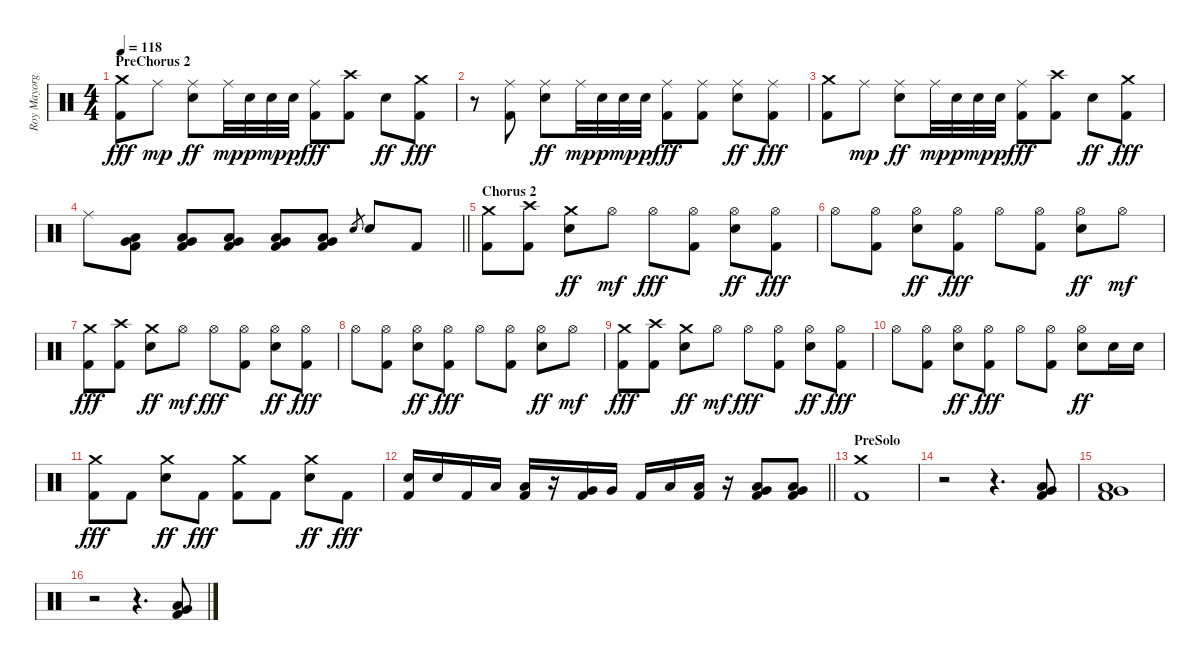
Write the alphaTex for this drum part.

\track ("Roy Mayorga" "Roy Mayorg") {instrument percussion}
\staff {score}
\articulation defaults
\ts (4 4)
\section ("" "PreChorus 2")
\tempo 118
\clef neutral
\ks c
("Crash medium (hit)" "Kick (hit) 2").8{dy fff} "Ride (middle)".8{dy mp} ("Ride (middle)" "Electric Snare (hit)").8{dy ff} "Ride (middle)".32{dy mp} "Electric Snare (hit)".32{dy p} "Electric Snare (hit)".32{dy mp} "Electric Snare (hit)".32{dy p} ("Ride (middle)" "Kick (hit) 2").8{dy fff} ("Crash high (hit)" "Kick (hit) 2").8 "Electric Snare (hit)".8{dy ff} ("Crash medium (hit)" "Kick (hit) 2").8{dy fff} |
r.8 ("Ride (middle)" "Kick (hit) 2").8 ("Ride (middle)" "Electric Snare (hit)").8{dy ff} "Ride (middle)".32{dy mp} "Electric Snare (hit)".32{dy p} "Electric Snare (hit)".32{dy mp} "Electric Snare (hit)".32{dy p} ("Ride (middle)" "Kick (hit) 2").8{dy fff} ("Ride (middle)" "Kick (hit) 2").8 ("Ride (middle)" "Electric Snare (hit)").8{dy ff} ("Ride (middle)" "Kick (hit) 2").8{dy fff} |
("Crash medium (hit)" "Kick (hit) 2").8 "Ride (middle)".8{dy mp} ("Ride (middle)" "Electric Snare (hit)").8{dy ff} "Ride (middle)".32{dy mp} "Electric Snare (hit)".32{dy p} "Electric Snare (hit)".32{dy mp} "Electric Snare (hit)".32{dy p} ("Ride (middle)" "Kick (hit) 2").8{dy fff} ("Crash high (hit)" "Kick (hit) 2").8 "Electric Snare (hit)".8{dy ff} ("Crash medium (hit)" "Kick (hit) 2").8{dy fff} |
\barLineRight lightlight "Ride (middle)".8
("Very Low Tom (hit)" "Low Floor Tom (hit)" "Kick (hit) 2").8 ("Very Low Tom (hit)" "Low Floor Tom (hit)" "Kick (hit) 2").8 ("Very Low Tom (hit)" "Low Floor Tom (hit)" "Kick (hit) 2").8 ("Very Low Tom (hit)" "Low Floor Tom (hit)" "Kick (hit) 2").8 ("Very Low Tom (hit)" "Low Floor Tom (hit)" "Kick (hit) 2").8 "Electric Snare (hit)".8{gr} "Electric Snare (hit)".8 "Kick (hit) 2".8 |
\section ("" "Chorus 2")
("Crash medium (hit)" "Kick (hit) 2").8 ("Crash high (hit)" "Kick (hit) 2").8 ("Crash medium (hit)" "Electric Snare (hit)").8{dy ff} "Hi-Hat (open)".8{dy mf} "Hi-Hat (open)".8{dy fff} ("Hi-Hat (open)" "Kick (hit) 2").8 ("Hi-Hat (open)" "Electric Snare (hit)").8{dy ff} ("Hi-Hat (open)" "Kick (hit) 2").8{dy fff} |
"Hi-Hat (open)".8 ("Hi-Hat (open)" "Kick (hit) 2").8 ("Hi-Hat (open)" "Electric Snare (hit)").8{dy ff} ("Hi-Hat (open)" "Kick (hit) 2").8{dy fff} "Hi-Hat (open)".8 ("Hi-Hat (open)" "Kick (hit) 2").8 ("Hi-Hat (open)" "Electric Snare (hit)").8{dy ff} "Hi-Hat (open)".8{dy mf} |
("Crash medium (hit)" "Kick (hit) 2").8{dy fff} ("Crash high (hit)" "Kick (hit) 2").8 ("Crash medium (hit)" "Electric Snare (hit)").8{dy ff} "Hi-Hat (open)".8{dy mf} "Hi-Hat (open)".8{dy fff} ("Hi-Hat (open)" "Kick (hit) 2").8 ("Hi-Hat (open)" "Electric Snare (hit)").8{dy ff} ("Hi-Hat (open)" "Kick (hit) 2").8{dy fff} |
"Hi-Hat (open)".8 ("Hi-Hat (open)" "Kick (hit) 2").8 ("Hi-Hat (open)" "Electric Snare (hit)").8{dy ff} ("Hi-Hat (open)" "Kick (hit) 2").8{dy fff} "Hi-Hat (open)".8 ("Hi-Hat (open)" "Kick (hit) 2").8 ("Hi-Hat (open)" "Electric Snare (hit)").8{dy ff} "Hi-Hat (open)".8{dy mf} |
("Crash medium (hit)" "Kick (hit) 2").8{dy fff} ("Crash high (hit)" "Kick (hit) 2").8 ("Crash medium (hit)" "Electric Snare (hit)").8{dy ff} "Hi-Hat (open)".8{dy mf} "Hi-Hat (open)".8{dy fff} ("Hi-Hat (open)" "Kick (hit) 2").8 ("Hi-Hat (open)" "Electric Snare (hit)").8{dy ff} ("Hi-Hat (open)" "Kick (hit) 2").8{dy fff} |
"Hi-Hat (open)".8 ("Hi-Hat (open)" "Kick (hit) 2").8 ("Hi-Hat (open)" "Electric Snare (hit)").8{dy ff} ("Hi-Hat (open)" "Kick (hit) 2").8{dy fff} "Hi-Hat (open)".8 ("Hi-Hat (open)" "Kick (hit) 2").8 ("Hi-Hat (open)" "Electric Snare (hit)").8{dy ff} "Electric Snare (hit)".16 "Electric Snare (hit)".16 |
("Crash medium (hit)" "Kick (hit) 2").8{dy fff} "Kick (hit) 2".8 ("Crash medium (hit)" "Electric Snare (hit)").8{dy ff} "Kick (hit) 2".8{dy fff} ("Crash medium (hit)" "Kick (hit) 2").8 "Kick (hit) 2".8 ("Crash medium (hit)" "Electric Snare (hit)").8{dy ff} "Kick (hit) 2".8{dy fff} |
\barLineRight lightlight
("Electric Snare (hit)" "Kick (hit) 2").16 "Electric Snare (hit)".16 "Kick (hit) 2".16 "Low Tom (hit)".16 ("Low Tom (hit)" "Kick (hit) 2").16 r.16 ("Very Low Tom (hit)" "Kick (hit) 2").16 "Very Low Tom (hit)".16 "Kick (hit) 2".16 "Low Floor Tom (hit)".16 ("Low Floor Tom (hit)" "Kick (hit) 2").16 r.16 ("Very Low Tom (hit)" "Low Floor Tom (hit)" "Kick (hit) 2").8 ("Very Low Tom (hit)" "Low Floor Tom (hit)" "Kick (hit) 2").8 |
\section ("" "PreSolo")
("Crash medium (hit)" "Kick (hit) 2").1 |
r.2 r.4{d} ("Very Low Tom (hit)" "Low Floor Tom (hit)" "Kick (hit) 2").8 |
("Very Low Tom (hit)" "Low Floor Tom (hit)" "Kick (hit) 2").1 |
r.2 r.4{d} ("Very Low Tom (hit)" "Low Floor Tom (hit)" "Kick (hit) 2").8
